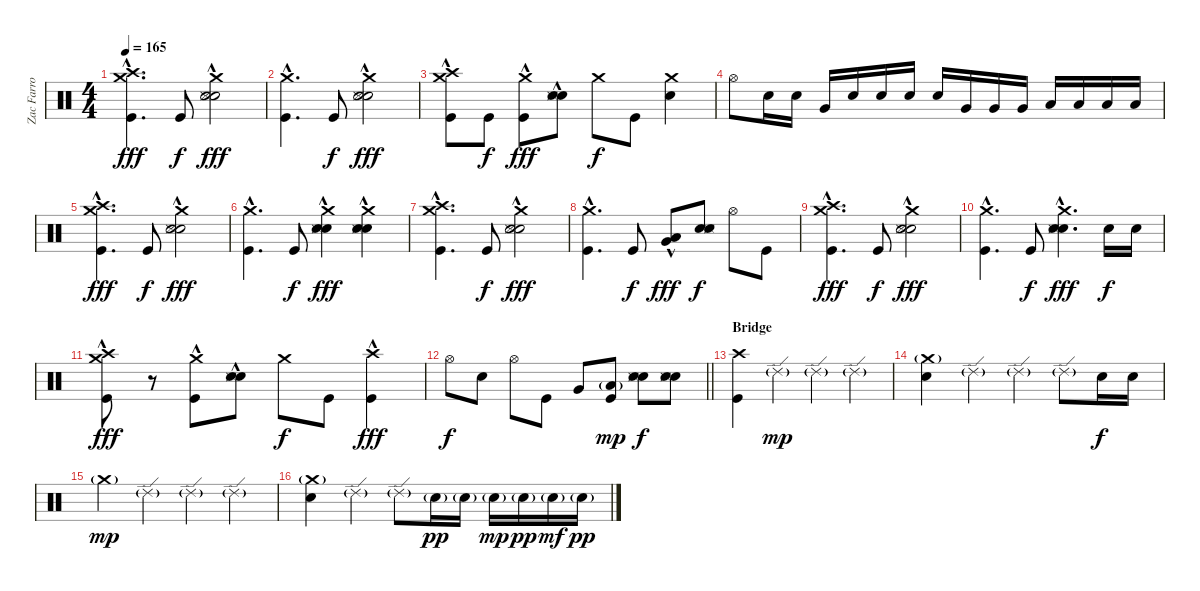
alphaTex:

\track ("Zac Farro (Drums)" "Zac Farro ") {instrument percussion}
\staff {score}
\articulation defaults
\ts (4 4)
\tempo 165
\clef neutral
\ks c
("Crash high (hit)"{hac} "Crash medium (hit)"{hac} "Kick (hit)"{hac}).4{d dy fff} "Kick (hit)".8{dy f} ("Crash medium (hit)"{hac} "Snare (hit) 2"{hac} "Snare (side stick) 3"{hac} "Electric Snare (hit)"{hac}).2{dy fff} |
("Crash medium (hit)"{hac} "Kick (hit)"{hac}).4{d} "Kick (hit)".8{dy f} ("Crash medium (hit)"{hac} "Snare (hit) 2"{hac} "Snare (side stick) 3"{hac} "Electric Snare (hit)"{hac}).2{dy fff} |
("Crash high (hit)"{hac} "Crash medium (hit)"{hac} "Kick (hit)"{hac}).8 "Kick (hit)".8{dy f} ("Crash medium (hit)"{hac} "Kick (hit)").8{dy fff} ("Snare (hit) 2"{hac} "Snare (side stick) 3"{hac} "Electric Snare (hit)"{hac}).8 "Crash medium (hit)".8{dy f} "Kick (hit)".8 ("Crash medium (hit)" "Electric Snare (hit)").4 |
"Hi-Hat (open)".8 "Electric Snare (hit)".16 "Electric Snare (hit)".16 "Very Low Tom (hit)".16 "Electric Snare (hit)".16 "Electric Snare (hit)".16 "Electric Snare (hit)".16 "Electric Snare (hit)".16 "Very Low Tom (hit)".16 "Very Low Tom (hit)".16 "Very Low Tom (hit)".16 "Low Floor Tom (hit)".16 "Low Floor Tom (hit)".16 "Low Floor Tom (hit)".16 "Low Floor Tom (hit)".16 |
("Crash high (hit)"{hac} "Crash medium (hit)"{hac} "Kick (hit)"{hac}).4{d dy fff} "Kick (hit)".8{dy f} ("Crash medium (hit)"{hac} "Snare (hit) 2"{hac} "Snare (side stick) 3"{hac} "Electric Snare (hit)"{hac}).2{dy fff} |
("Crash medium (hit)"{hac} "Kick (hit)"{hac}).4{d} "Kick (hit)".8{dy f} ("Crash medium (hit)"{hac} "Snare (hit) 2"{hac} "Snare (side stick) 3"{hac} "Electric Snare (hit)"{hac}).4{dy fff} ("Crash medium (hit)"{hac} "Snare (hit) 2"{hac} "Snare (side stick) 3"{hac} "Electric Snare (hit)"{hac}).4 |
("Crash high (hit)"{hac} "Crash medium (hit)"{hac} "Kick (hit)"{hac}).4{d} "Kick (hit)".8{dy f} ("Crash medium (hit)"{hac} "Snare (hit) 2"{hac} "Snare (side stick) 3"{hac} "Electric Snare (hit)"{hac}).2{dy fff} |
("Crash medium (hit)"{hac} "Kick (hit)"{hac}).4{d} "Kick (hit)".8{dy f} ("Very Low Tom (hit)"{hac} "Low Floor Tom (hit)"{hac}).8{dy fff} ("Snare (hit) 2" "Snare (side stick) 3" "Electric Snare (hit)").8{dy f} "Hi-Hat (open)".8 "Kick (hit)".8 |
("Crash high (hit)"{hac} "Crash medium (hit)"{hac} "Kick (hit)"{hac}).4{d dy fff} "Kick (hit)".8{dy f} ("Crash medium (hit)"{hac} "Snare (hit) 2"{hac} "Snare (side stick) 3"{hac} "Electric Snare (hit)"{hac}).2{dy fff} |
("Crash medium (hit)"{hac} "Kick (hit)"{hac}).4{d} "Kick (hit)".8{dy f} ("Crash medium (hit)"{hac} "Snare (hit) 2"{hac} "Snare (side stick) 3"{hac} "Electric Snare (hit)"{hac}).4{d dy fff} "Electric Snare (hit)".16{dy f} "Electric Snare (hit)".16 |
("Crash high (hit)"{hac} "Crash medium (hit)"{hac} "Kick (hit)"{hac}).8{dy fff} r.8 ("Crash medium (hit)"{hac} "Kick (hit)").8 ("Snare (hit) 2"{hac} "Snare (side stick) 3"{hac} "Electric Snare (hit)"{hac}).8 "Crash medium (hit)".8{dy f} "Kick (hit)".8 ("Crash high (hit)"{hac} "Kick (hit)"{hac}).4{dy fff} |
\barLineRight lightlight "Hi-Hat (open)".8{dy f} "Electric Snare (hit)".8 "Hi-Hat (open)".8 "Kick (hit)".8 "Very Low Tom (hit)".8
("Low Floor Tom (hit)"{g} "Kick (hit)").8{dy mp} ("Snare (hit) 2" "Snare (side stick) 3" "Electric Snare (hit)").8{dy f} ("Snare (hit) 2" "Snare (side stick) 3" "Electric Snare (hit)").8 |
\section ("" "Bridge")
("Crash high (hit)" "Kick (hit)").4 "Ride (edge) 2"{g}.4{dy mp} "Ride (edge) 2"{g}.4 "Ride (edge) 2"{g}.4 |
("Crash medium (hit)"{g} "Electric Snare (hit)").4 "Ride (edge) 2"{g}.4 "Ride (edge) 2"{g}.4 "Ride (edge) 2"{g}.8 "Electric Snare (hit)".16{dy f} "Electric Snare (hit)".16 |
"Crash medium (hit)"{g}.4{dy mp} "Ride (edge) 2"{g}.4 "Ride (edge) 2"{g}.4 "Ride (edge) 2"{g}.4 |
("Crash medium (hit)"{g} "Electric Snare (hit)").4 "Ride (edge) 2"{g}.4 "Ride (edge) 2"{g}.8 "Electric Snare (hit)"{g}.16{dy pp} "Electric Snare (hit)"{g}.16 "Electric Snare (hit)"{g}.16{dy mp} "Electric Snare (hit)"{g}.16{dy pp} "Electric Snare (hit)"{g}.16{dy mf} "Electric Snare (hit)"{g}.16{dy pp}
